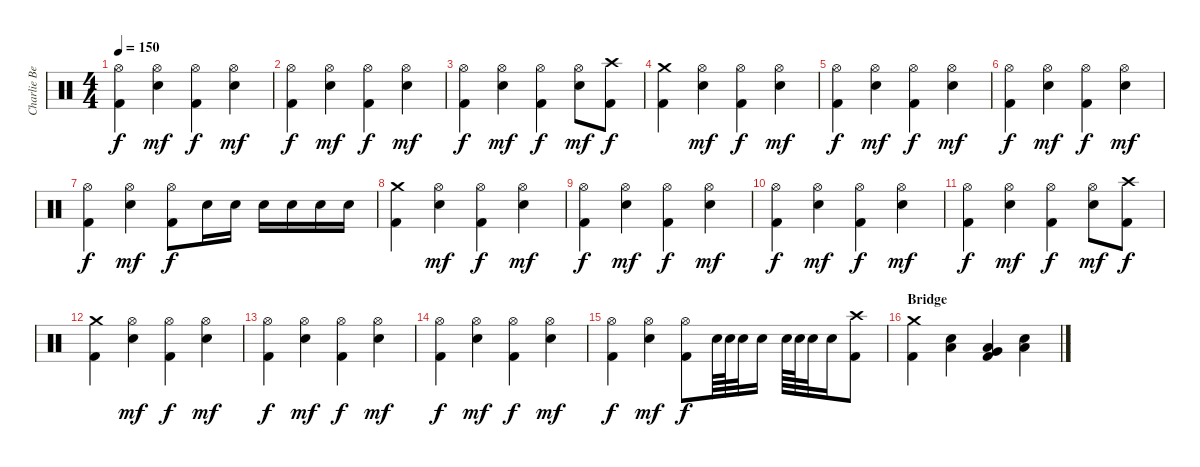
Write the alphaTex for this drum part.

\track ("Charlie Benante" "Charlie Be") {instrument percussion}
\staff {score}
\articulation defaults
\ts (4 4)
\tempo 150
\clef neutral
\ks c
("Kick (hit) 2" "Hi-Hat (open)").4{dy f} ("Hi-Hat (open)" "Snare (hit) 2").4{dy mf} ("Kick (hit) 2" "Hi-Hat (open)").4{dy f} ("Hi-Hat (open)" "Snare (hit) 2").4{dy mf} |
("Kick (hit) 2" "Hi-Hat (open)").4{dy f} ("Hi-Hat (open)" "Snare (hit) 2").4{dy mf} ("Kick (hit) 2" "Hi-Hat (open)").4{dy f} ("Hi-Hat (open)" "Snare (hit) 2").4{dy mf} |
("Kick (hit) 2" "Hi-Hat (open)").4{dy f} ("Hi-Hat (open)" "Snare (hit) 2").4{dy mf} ("Kick (hit) 2" "Hi-Hat (open)").4{dy f} ("Hi-Hat (open)" "Snare (hit) 2").8{dy mf} ("Kick (hit) 2" "Crash high (hit)").8{dy f} |
("Kick (hit) 2" "Crash medium (hit)").4 ("Hi-Hat (open)" "Snare (hit) 2").4{dy mf} ("Kick (hit) 2" "Hi-Hat (open)").4{dy f} ("Hi-Hat (open)" "Snare (hit) 2").4{dy mf} |
("Kick (hit) 2" "Hi-Hat (open)").4{dy f} ("Hi-Hat (open)" "Snare (hit) 2").4{dy mf} ("Kick (hit) 2" "Hi-Hat (open)").4{dy f} ("Hi-Hat (open)" "Snare (hit) 2").4{dy mf} |
("Kick (hit) 2" "Hi-Hat (open)").4{dy f} ("Hi-Hat (open)" "Snare (hit) 2").4{dy mf} ("Kick (hit) 2" "Hi-Hat (open)").4{dy f} ("Hi-Hat (open)" "Snare (hit) 2").4{dy mf} |
("Kick (hit) 2" "Hi-Hat (open)").4{dy f} ("Hi-Hat (open)" "Snare (hit) 2").4{dy mf} ("Kick (hit) 2" "Hi-Hat (open)").8{dy f} "Snare (hit) 2".16 "Snare (hit) 2".16 "Snare (hit) 2".16 "Snare (hit) 2".16 "Snare (hit) 2".16 "Snare (hit) 2".16 |
("Kick (hit) 2" "Crash medium (hit)").4 ("Hi-Hat (open)" "Snare (hit) 2").4{dy mf} ("Kick (hit) 2" "Hi-Hat (open)").4{dy f} ("Hi-Hat (open)" "Snare (hit) 2").4{dy mf} |
("Kick (hit) 2" "Hi-Hat (open)").4{dy f} ("Hi-Hat (open)" "Snare (hit) 2").4{dy mf} ("Kick (hit) 2" "Hi-Hat (open)").4{dy f} ("Hi-Hat (open)" "Snare (hit) 2").4{dy mf} |
("Kick (hit) 2" "Hi-Hat (open)").4{dy f} ("Hi-Hat (open)" "Snare (hit) 2").4{dy mf} ("Kick (hit) 2" "Hi-Hat (open)").4{dy f} ("Hi-Hat (open)" "Snare (hit) 2").4{dy mf} |
("Kick (hit) 2" "Hi-Hat (open)").4{dy f} ("Hi-Hat (open)" "Snare (hit) 2").4{dy mf} ("Kick (hit) 2" "Hi-Hat (open)").4{dy f} ("Hi-Hat (open)" "Snare (hit) 2").8{dy mf} ("Kick (hit) 2" "Crash high (hit)").8{dy f} |
("Kick (hit) 2" "Crash medium (hit)").4 ("Hi-Hat (open)" "Snare (hit) 2").4{dy mf} ("Kick (hit) 2" "Hi-Hat (open)").4{dy f} ("Hi-Hat (open)" "Snare (hit) 2").4{dy mf} |
("Kick (hit) 2" "Hi-Hat (open)").4{dy f} ("Hi-Hat (open)" "Snare (hit) 2").4{dy mf} ("Kick (hit) 2" "Hi-Hat (open)").4{dy f} ("Hi-Hat (open)" "Snare (hit) 2").4{dy mf} |
("Kick (hit) 2" "Hi-Hat (open)").4{dy f} ("Hi-Hat (open)" "Snare (hit) 2").4{dy mf} ("Kick (hit) 2" "Hi-Hat (open)").4{dy f} ("Hi-Hat (open)" "Snare (hit) 2").4{dy mf} |
("Kick (hit) 2" "Hi-Hat (open)").4{dy f} ("Hi-Hat (open)" "Snare (hit) 2").4{dy mf} ("Kick (hit) 2" "Hi-Hat (open)").8{dy f} "Snare (hit) 2".64 "Snare (hit) 2".64 "Snare (hit)".32 "Snare (hit)".16 "Snare (hit) 2".64 "Snare (hit) 2".64 "Snare (hit)".32 "Snare (hit)".16 ("Kick (hit) 2" "Crash high (hit)").8 |
\section ("" "Bridge")
("Kick (hit) 2" "Crash medium (hit)").4 ("Snare (hit) 2" "Low Tom (hit)").4 ("Kick (hit) 2" "Low Tom (hit)" "Very Low Tom (hit)").4 ("Snare (hit) 2" "Low Tom (hit)").4
